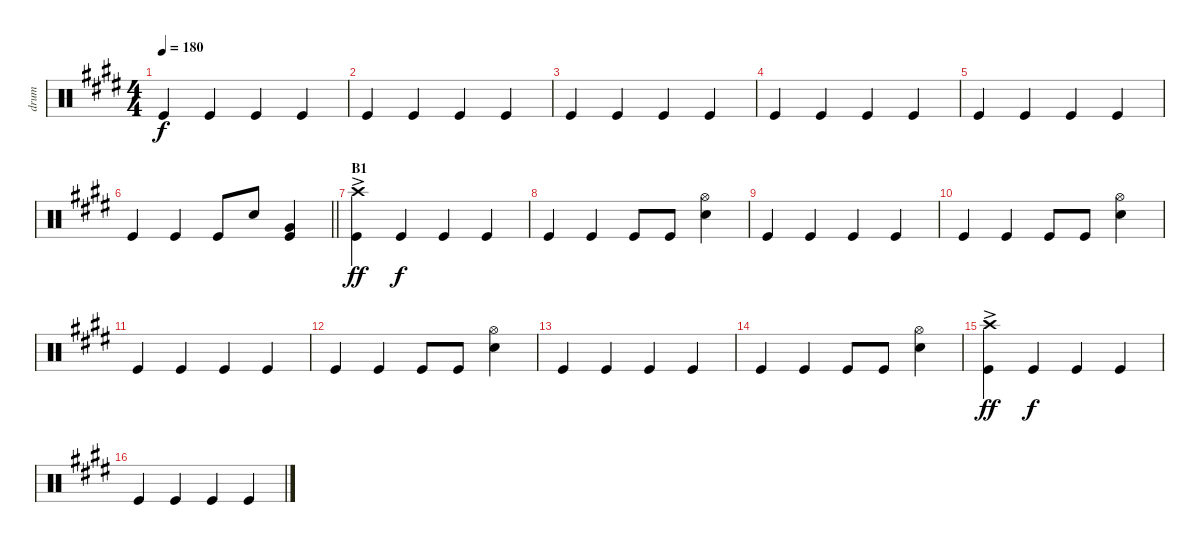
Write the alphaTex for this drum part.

\track ("drum" "drum") {instrument percussion}
\staff {score}
\articulation defaults
\ts (4 4)
\tempo 180
\clef neutral
\ks e "Kick (hit)".4{dy f} "Kick (hit)".4 "Kick (hit)".4 "Kick (hit)".4
|
"Kick (hit)".4 "Kick (hit)".4 "Kick (hit)".4 "Kick (hit)".4 |
"Kick (hit)".4 "Kick (hit)".4 "Kick (hit)".4 "Kick (hit)".4 |
"Kick (hit)".4 "Kick (hit)".4 "Kick (hit)".4 "Kick (hit)".4 |
"Kick (hit)".4 "Kick (hit)".4 "Kick (hit)".4 "Kick (hit)".4 |
\barLineRight lightlight "Kick (hit)".4 "Kick (hit)".4 "Kick (hit)".8 "Snare (hit) 2".8
("Very Low Tom (hit)" "Kick (hit)").4 |
\section ("" "B1")
("Crash high (hit)"{ac} "Kick (hit)").4{dy ff} "Kick (hit)".4{dy f} "Kick (hit)".4 "Kick (hit)".4 |
"Kick (hit)".4 "Kick (hit)".4 "Kick (hit)".8 "Kick (hit)".8 ("Hi-Hat (open)" "Snare (hit) 2").4 |
"Kick (hit)".4 "Kick (hit)".4 "Kick (hit)".4 "Kick (hit)".4 |
"Kick (hit)".4 "Kick (hit)".4 "Kick (hit)".8 "Kick (hit)".8 ("Hi-Hat (open)" "Snare (hit) 2").4 |
"Kick (hit)".4 "Kick (hit)".4 "Kick (hit)".4 "Kick (hit)".4 |
"Kick (hit)".4 "Kick (hit)".4 "Kick (hit)".8 "Kick (hit)".8 ("Hi-Hat (open)" "Snare (hit) 2").4 |
"Kick (hit)".4 "Kick (hit)".4 "Kick (hit)".4 "Kick (hit)".4 |
"Kick (hit)".4 "Kick (hit)".4 "Kick (hit)".8 "Kick (hit)".8 ("Hi-Hat (open)" "Snare (hit) 2").4 |
("Crash high (hit)"{ac} "Kick (hit)").4{dy ff} "Kick (hit)".4{dy f} "Kick (hit)".4 "Kick (hit)".4 |
"Kick (hit)".4 "Kick (hit)".4 "Kick (hit)".4 "Kick (hit)".4
